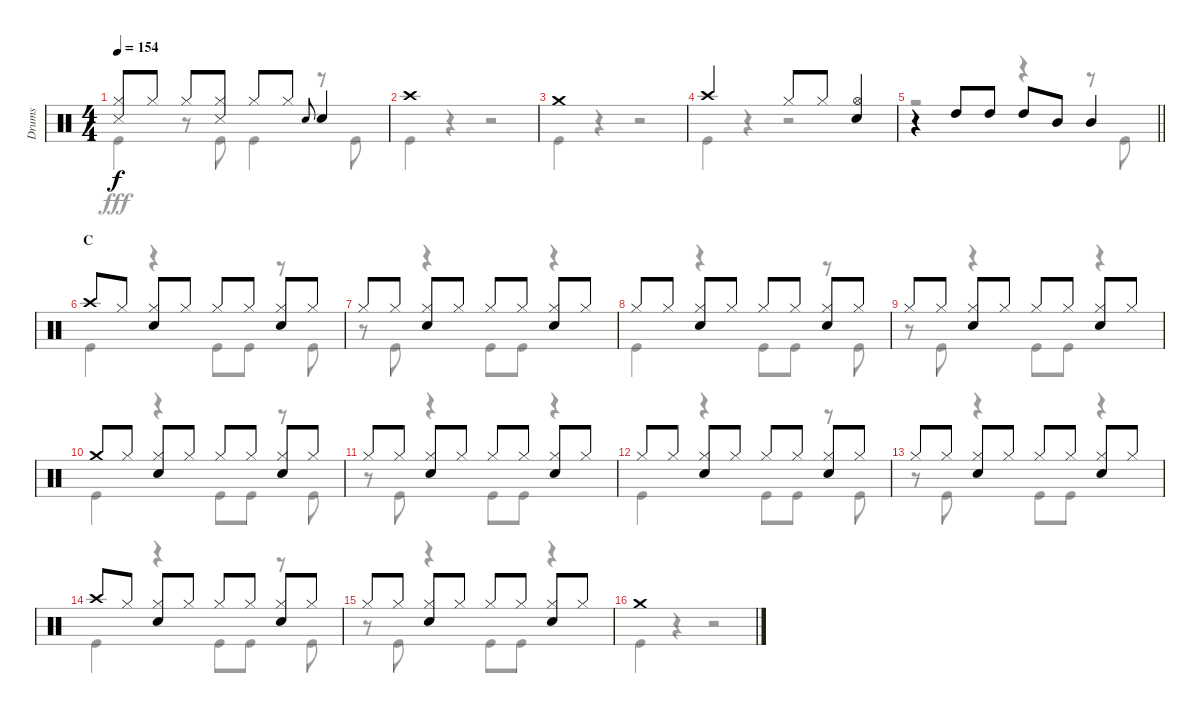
\track ("Drums" "Drums") {instrument percussion}
\staff {score}
\articulation defaults
\voice
\ts (4 4)
\tempo 154
\clef neutral
\ks c
("Hi-Hat (closed)" "Snare (side stick) 3").8{dy f} "Hi-Hat (closed)".8 "Hi-Hat (closed)".8 ("Hi-Hat (closed)" "Snare (side stick) 3").8 "Hi-Hat (closed)".8 "Hi-Hat (closed)".8 "Snare (hit) 2".8{gr onbeat} "Snare (hit) 2".4 |
"Crash high (hit)".1 |
"Crash medium (hit)".1 |
"Crash high (hit)".2 "Hi-Hat (closed)".8 "Hi-Hat (closed)".8 ("Hi-Hat (open)" "Snare (hit) 2").4 |
\barLineRight lightlight
r.4 "High Tom (hit)".8 "High Tom (hit)".8 "High Tom (hit)".8 "Mid Tom (hit)".8 "Mid Tom (hit)".4 |
\section ("" "C")
"Crash high (hit)".8 "Hi-Hat (closed)".8 ("Hi-Hat (closed)" "Snare (hit) 2").8 "Hi-Hat (closed)".8 "Hi-Hat (closed)".8 "Hi-Hat (closed)".8 ("Hi-Hat (closed)" "Snare (hit) 2").8 "Hi-Hat (closed)".8 |
"Hi-Hat (closed)".8 "Hi-Hat (closed)".8 ("Hi-Hat (closed)" "Snare (hit) 2").8 "Hi-Hat (closed)".8 "Hi-Hat (closed)".8 "Hi-Hat (closed)".8 ("Hi-Hat (closed)" "Snare (hit) 2").8 "Hi-Hat (closed)".8 |
"Hi-Hat (closed)".8 "Hi-Hat (closed)".8 ("Hi-Hat (closed)" "Snare (hit) 2").8 "Hi-Hat (closed)".8 "Hi-Hat (closed)".8 "Hi-Hat (closed)".8 ("Hi-Hat (closed)" "Snare (hit) 2").8 "Hi-Hat (closed)".8 |
"Hi-Hat (closed)".8 "Hi-Hat (closed)".8 ("Hi-Hat (closed)" "Snare (hit) 2").8 "Hi-Hat (closed)".8 "Hi-Hat (closed)".8 "Hi-Hat (closed)".8 ("Hi-Hat (closed)" "Snare (hit) 2").8 "Hi-Hat (closed)".8 |
"Crash medium (hit)".8 "Hi-Hat (closed)".8 ("Hi-Hat (closed)" "Snare (hit) 2").8 "Hi-Hat (closed)".8 "Hi-Hat (closed)".8 "Hi-Hat (closed)".8 ("Hi-Hat (closed)" "Snare (hit) 2").8 "Hi-Hat (closed)".8 |
"Hi-Hat (closed)".8 "Hi-Hat (closed)".8 ("Hi-Hat (closed)" "Snare (hit) 2").8 "Hi-Hat (closed)".8 "Hi-Hat (closed)".8 "Hi-Hat (closed)".8 ("Hi-Hat (closed)" "Snare (hit) 2").8 "Hi-Hat (closed)".8 |
"Hi-Hat (closed)".8 "Hi-Hat (closed)".8 ("Hi-Hat (closed)" "Snare (hit) 2").8 "Hi-Hat (closed)".8 "Hi-Hat (closed)".8 "Hi-Hat (closed)".8 ("Hi-Hat (closed)" "Snare (hit) 2").8 "Hi-Hat (closed)".8 |
"Hi-Hat (closed)".8 "Hi-Hat (closed)".8 ("Hi-Hat (closed)" "Snare (hit) 2").8 "Hi-Hat (closed)".8 "Hi-Hat (closed)".8 "Hi-Hat (closed)".8 ("Hi-Hat (closed)" "Snare (hit) 2").8 "Hi-Hat (closed)".8 |
"Crash high (hit)".8 "Hi-Hat (closed)".8 ("Hi-Hat (closed)" "Snare (hit) 2").8 "Hi-Hat (closed)".8 "Hi-Hat (closed)".8 "Hi-Hat (closed)".8 ("Hi-Hat (closed)" "Snare (hit) 2").8 "Hi-Hat (closed)".8 |
"Hi-Hat (closed)".8 "Hi-Hat (closed)".8 ("Hi-Hat (closed)" "Snare (hit) 2").8 "Hi-Hat (closed)".8 "Hi-Hat (closed)".8 "Hi-Hat (closed)".8 ("Hi-Hat (closed)" "Snare (hit) 2").8 "Hi-Hat (closed)".8 |
"Crash medium (hit)".1
\voice
\clef neutral
\ottava regular
\simile none
\ks c "Kick (hit)".4{dy fff}
r.8 "Kick (hit)".8 "Kick (hit)".4 r.8 "Kick (hit)".8 |
"Kick (hit)".4 r.4 r.2 |
"Kick (hit)".4 r.4 r.2 |
"Kick (hit)".4 r.4 r.2 |
\barLineRight lightlight
r.2 r.4 r.8 "Kick (hit)".8 |
"Kick (hit)".4 r.4 "Kick (hit)".8 "Kick (hit)".8 r.8 "Kick (hit)".8 |
r.8 "Kick (hit)".8 r.4 "Kick (hit)".8 "Kick (hit)".8 r.4 |
"Kick (hit)".4 r.4 "Kick (hit)".8 "Kick (hit)".8 r.8 "Kick (hit)".8 |
r.8 "Kick (hit)".8 r.4 "Kick (hit)".8 "Kick (hit)".8 r.4 |
"Kick (hit)".4 r.4 "Kick (hit)".8 "Kick (hit)".8 r.8 "Kick (hit)".8 |
r.8 "Kick (hit)".8 r.4 "Kick (hit)".8 "Kick (hit)".8 r.4 |
"Kick (hit)".4 r.4 "Kick (hit)".8 "Kick (hit)".8 r.8 "Kick (hit)".8 |
r.8 "Kick (hit)".8 r.4 "Kick (hit)".8 "Kick (hit)".8 r.4 |
"Kick (hit)".4 r.4 "Kick (hit)".8 "Kick (hit)".8 r.8 "Kick (hit)".8 |
r.8 "Kick (hit)".8 r.4 "Kick (hit)".8 "Kick (hit)".8 r.4 |
"Kick (hit)".4 r.4 r.2
